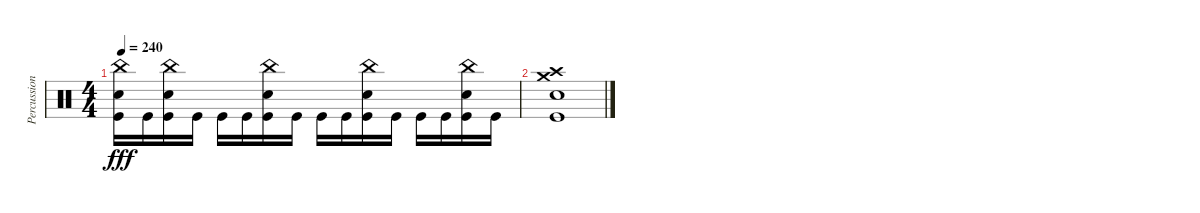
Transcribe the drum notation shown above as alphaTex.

\track ("Percussion" "Percussion") {instrument percussion}
\staff {score}
\articulation defaults
\ts (4 4)
\tempo 240
\clef neutral
\ks c
("Snare (hit) 2" "Kick (hit)" "China (hit)").16{dy fff} "Kick (hit)".16 ("Kick (hit)" "Snare (hit) 2" "China (hit)").16 "Kick (hit)".16 "Kick (hit)".16 "Kick (hit)".16 ("Kick (hit)" "Snare (hit) 2" "China (hit)").16 "Kick (hit)".16 "Kick (hit)".16 "Kick (hit)".16 ("Kick (hit)" "Snare (hit) 2" "China (hit)").16 "Kick (hit)".16 "Kick (hit)".16 "Kick (hit)".16 ("Kick (hit)" "Snare (hit) 2" "China (hit)").16 "Kick (hit)".16 |
("Snare (hit) 2" "Kick (hit)" "Crash high (hit)" "Crash medium (hit)").1
